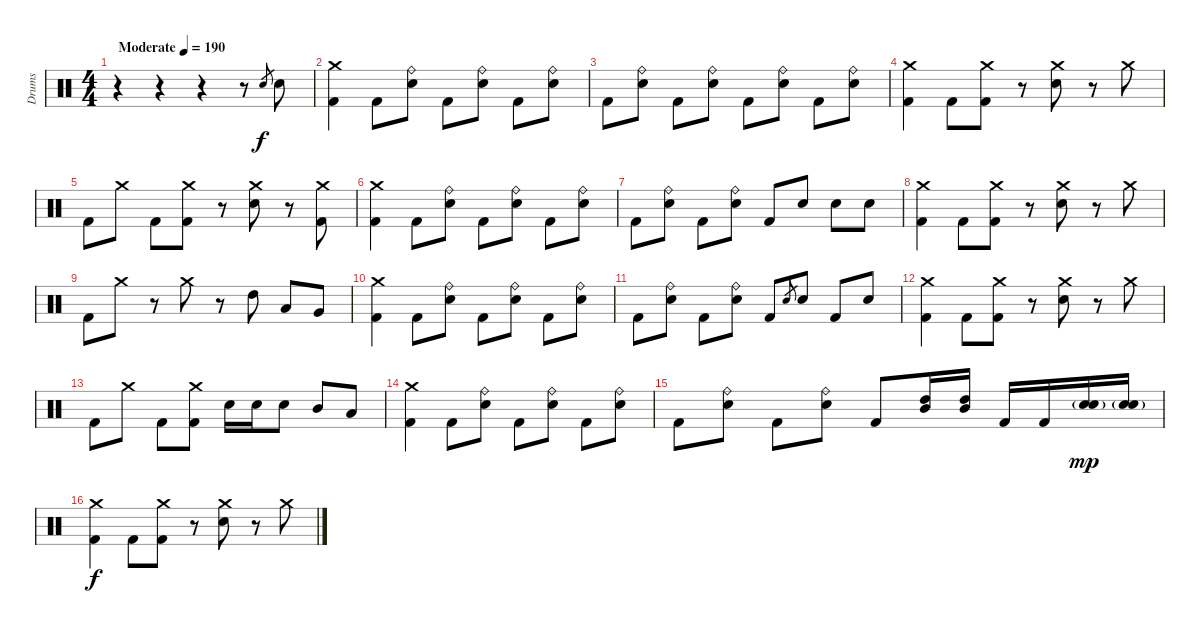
\track ("Drums" "Drums") {instrument percussion}
\staff {score}
\articulation defaults
\ts (4 4)
\tempo (190 "Moderate")
\clef neutral
\ks c
r.4{dy f} r.4 r.4 r.8 "Electric Snare (hit)".8{gr} "Electric Snare (hit)".8 |
("Crash medium (hit)" "Kick (hit) 2").4 "Kick (hit) 2".8 ("Ride (bell)" "Electric Snare (hit)").8 "Kick (hit) 2".8 ("Ride (bell)" "Electric Snare (hit)").8 "Kick (hit) 2".8 ("Ride (bell)" "Electric Snare (hit)").8 |
"Kick (hit) 2".8 ("Ride (bell)" "Electric Snare (hit)").8 "Kick (hit) 2".8 ("Ride (bell)" "Electric Snare (hit)").8 "Kick (hit) 2".8 ("Ride (bell)" "Electric Snare (hit)").8 "Kick (hit) 2".8 ("Ride (bell)" "Electric Snare (hit)").8 |
("Crash medium (hit)" "Kick (hit) 2").4 "Kick (hit) 2".8 ("Crash medium (hit)" "Kick (hit) 2").8 r.8 ("Crash medium (hit)" "Electric Snare (hit)").8 r.8 "Crash medium (hit)".8 |
"Kick (hit) 2".8 "Crash medium (hit)".8 "Kick (hit) 2".8 ("Crash medium (hit)" "Kick (hit) 2").8 r.8 ("Crash medium (hit)" "Electric Snare (hit)").8 r.8 ("Crash medium (hit)" "Kick (hit) 2").8 |
("Crash medium (hit)" "Kick (hit) 2").4 "Kick (hit) 2".8 ("Ride (bell)" "Electric Snare (hit)").8 "Kick (hit) 2".8 ("Ride (bell)" "Electric Snare (hit)").8 "Kick (hit) 2".8 ("Ride (bell)" "Electric Snare (hit)").8 |
"Kick (hit) 2".8 ("Ride (bell)" "Electric Snare (hit)").8 "Kick (hit) 2".8 ("Ride (bell)" "Electric Snare (hit)").8 "Kick (hit) 2".8 "Electric Snare (hit)".8 "Electric Snare (hit)".8 "Electric Snare (hit)".8 |
("Crash medium (hit)" "Kick (hit) 2").4 "Kick (hit) 2".8 ("Crash medium (hit)" "Kick (hit) 2").8 r.8 ("Crash medium (hit)" "Electric Snare (hit)").8 r.8 "Crash medium (hit)".8 |
"Kick (hit) 2".8 "Crash medium (hit)".8 r.8 "Crash medium (hit)".8 r.8 "High Tom (hit)".8 "Low Tom (hit)".8 "Very Low Tom (hit)".8 |
("Crash medium (hit)" "Kick (hit) 2").4 "Kick (hit) 2".8 ("Ride (bell)" "Electric Snare (hit)").8 "Kick (hit) 2".8 ("Ride (bell)" "Electric Snare (hit)").8 "Kick (hit) 2".8 ("Ride (bell)" "Electric Snare (hit)").8 |
"Kick (hit) 2".8 ("Ride (bell)" "Electric Snare (hit)").8 "Kick (hit) 2".8 ("Ride (bell)" "Electric Snare (hit)").8 "Kick (hit) 2".8 "Electric Snare (hit)".8{gr} "Electric Snare (hit)".8 "Kick (hit) 2".8 "Electric Snare (hit)".8 |
("Crash medium (hit)" "Kick (hit) 2").4 "Kick (hit) 2".8 ("Crash medium (hit)" "Kick (hit) 2").8 r.8 ("Crash medium (hit)" "Electric Snare (hit)").8 r.8 "Crash medium (hit)".8 |
"Kick (hit) 2".8 "Crash medium (hit)".8 "Kick (hit) 2".8 ("Crash medium (hit)" "Kick (hit) 2").8 "Electric Snare (hit)".16 "Electric Snare (hit)".16 "Electric Snare (hit)".8 "Mid Tom (hit)".8 "Low Tom (hit)".8 |
("Crash medium (hit)" "Kick (hit) 2").4 "Kick (hit) 2".8 ("Ride (bell)" "Electric Snare (hit)").8 "Kick (hit) 2".8 ("Ride (bell)" "Electric Snare (hit)").8 "Kick (hit) 2".8 ("Ride (bell)" "Electric Snare (hit)").8 |
"Kick (hit) 2".8 ("Ride (bell)" "Electric Snare (hit)").8 "Kick (hit) 2".8 ("Ride (bell)" "Electric Snare (hit)").8 "Kick (hit) 2".8 ("Mid Tom (hit)" "High Tom (hit)").16 ("Mid Tom (hit)" "High Tom (hit)").16 "Kick (hit) 2".16 "Kick (hit) 2".16 ("Snare (hit) 2"{g} "Electric Snare (hit)").16{dy mp} ("Snare (hit) 2"{g} "Electric Snare (hit)").16 |
("Crash medium (hit)" "Kick (hit) 2").4{dy f} "Kick (hit) 2".8 ("Crash medium (hit)" "Kick (hit) 2").8 r.8 ("Crash medium (hit)" "Electric Snare (hit)").8 r.8 "Crash medium (hit)".8
